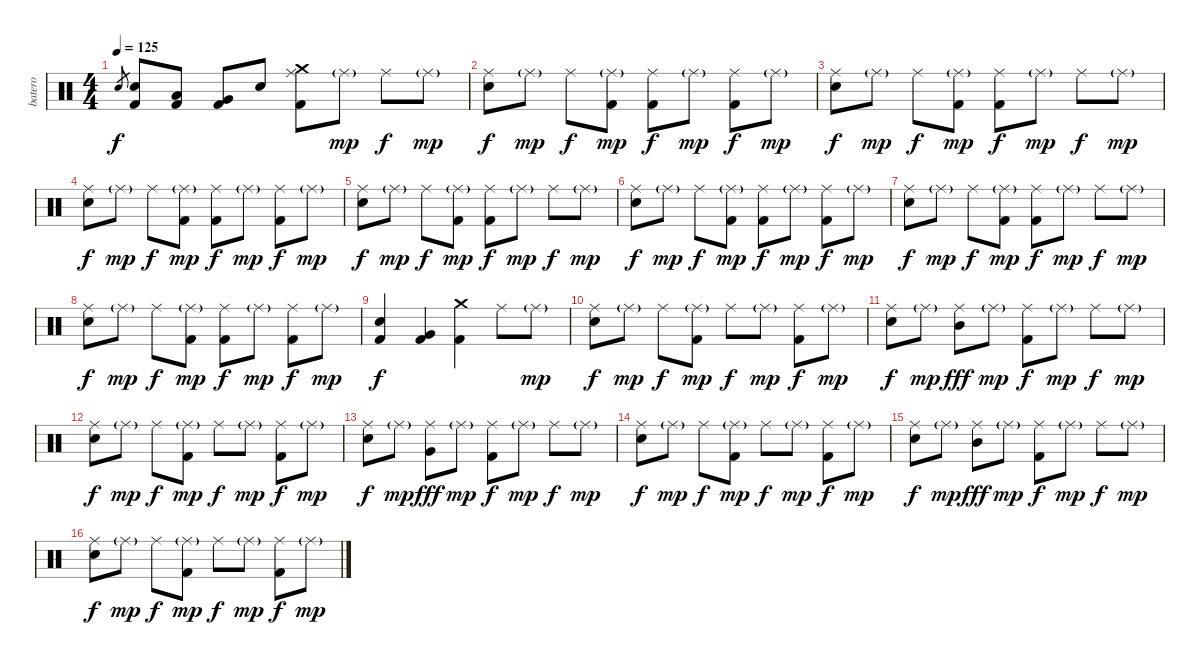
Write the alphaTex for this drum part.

\track ("batero" "batero") {instrument percussion}
\staff {score}
\articulation defaults
\ts (4 4)
\tempo 125
\clef neutral
\ks c "Snare (hit) 2".8{gr dy f}
("Snare (hit) 2" "Kick (hit) 2").8 ("Low Tom (hit)" "Kick (hit) 2").8 ("Very Low Tom (hit)" "Kick (hit) 2").8 "Snare (hit) 2".8 ("Crash medium (hit)" "Ride (middle)" "Kick (hit) 2").8 "Ride (middle)"{g}.8{dy mp} "Ride (middle)".8{dy f} "Ride (middle)"{g}.8{dy mp} |
("Ride (middle)" "Snare (hit) 2").8{dy f} "Ride (middle)"{g}.8{dy mp} "Ride (middle)".8{dy f} ("Ride (middle)"{g} "Kick (hit) 2").8{dy mp} ("Ride (middle)" "Kick (hit) 2").8{dy f} "Ride (middle)"{g}.8{dy mp} ("Ride (middle)" "Kick (hit) 2").8{dy f} "Ride (middle)"{g}.8{dy mp} |
("Ride (middle)" "Snare (hit) 2").8{dy f} "Ride (middle)"{g}.8{dy mp} "Ride (middle)".8{dy f} ("Ride (middle)"{g} "Kick (hit) 2").8{dy mp} ("Ride (middle)" "Kick (hit) 2").8{dy f} "Ride (middle)"{g}.8{dy mp} "Ride (middle)".8{dy f} "Ride (middle)"{g}.8{dy mp} |
("Ride (middle)" "Snare (hit) 2").8{dy f} "Ride (middle)"{g}.8{dy mp} "Ride (middle)".8{dy f} ("Ride (middle)"{g} "Kick (hit) 2").8{dy mp} ("Ride (middle)" "Kick (hit) 2").8{dy f} "Ride (middle)"{g}.8{dy mp} ("Ride (middle)" "Kick (hit) 2").8{dy f} "Ride (middle)"{g}.8{dy mp} |
("Ride (middle)" "Snare (hit) 2").8{dy f} "Ride (middle)"{g}.8{dy mp} "Ride (middle)".8{dy f} ("Ride (middle)"{g} "Kick (hit) 2").8{dy mp} ("Ride (middle)" "Kick (hit) 2").8{dy f} "Ride (middle)"{g}.8{dy mp} "Ride (middle)".8{dy f} "Ride (middle)"{g}.8{dy mp} |
("Ride (middle)" "Snare (hit) 2").8{dy f} "Ride (middle)"{g}.8{dy mp} "Ride (middle)".8{dy f} ("Ride (middle)"{g} "Kick (hit) 2").8{dy mp} ("Ride (middle)" "Kick (hit) 2").8{dy f} "Ride (middle)"{g}.8{dy mp} ("Ride (middle)" "Kick (hit) 2").8{dy f} "Ride (middle)"{g}.8{dy mp} |
("Ride (middle)" "Snare (hit) 2").8{dy f} "Ride (middle)"{g}.8{dy mp} "Ride (middle)".8{dy f} ("Ride (middle)"{g} "Kick (hit) 2").8{dy mp} ("Ride (middle)" "Kick (hit) 2").8{dy f} "Ride (middle)"{g}.8{dy mp} "Ride (middle)".8{dy f} "Ride (middle)"{g}.8{dy mp} |
("Ride (middle)" "Snare (hit) 2").8{dy f} "Ride (middle)"{g}.8{dy mp} "Ride (middle)".8{dy f} ("Ride (middle)"{g} "Kick (hit) 2").8{dy mp} ("Ride (middle)" "Kick (hit) 2").8{dy f} "Ride (middle)"{g}.8{dy mp} ("Ride (middle)" "Kick (hit) 2").8{dy f} "Ride (middle)"{g}.8{dy mp} |
("Snare (hit) 2" "Kick (hit) 2").4{dy f} ("Very Low Tom (hit)" "Kick (hit) 2").4 ("Crash medium (hit)" "Kick (hit) 2").4 "Ride (middle)".8 "Ride (middle)"{g}.8{dy mp} |
("Ride (middle)" "Snare (hit) 2").8{dy f} "Ride (middle)"{g}.8{dy mp} "Ride (middle)".8{dy f} ("Ride (middle)"{g} "Kick (hit) 2").8{dy mp} "Ride (middle)".8{dy f} "Ride (middle)"{g}.8{dy mp} ("Ride (middle)" "Kick (hit) 2").8{dy f} "Ride (middle)"{g}.8{dy mp} |
("Ride (middle)" "Snare (hit) 2").8{dy f} "Ride (middle)"{g}.8{dy mp} ("Ride (middle)" "Mid Tom (hit)").8{dy fff} "Ride (middle)"{g}.8{dy mp} ("Ride (middle)" "Kick (hit) 2").8{dy f} "Ride (middle)"{g}.8{dy mp} "Ride (middle)".8{dy f} "Ride (middle)"{g}.8{dy mp} |
("Ride (middle)" "Snare (hit) 2").8{dy f} "Ride (middle)"{g}.8{dy mp} "Ride (middle)".8{dy f} ("Ride (middle)"{g} "Kick (hit) 2").8{dy mp} "Ride (middle)".8{dy f} "Ride (middle)"{g}.8{dy mp} ("Ride (middle)" "Kick (hit) 2").8{dy f} "Ride (middle)"{g}.8{dy mp} |
("Ride (middle)" "Snare (hit) 2").8{dy f} "Ride (middle)"{g}.8{dy mp} ("Ride (middle)" "Very Low Tom (hit)").8{dy fff} "Ride (middle)"{g}.8{dy mp} ("Ride (middle)" "Kick (hit) 2").8{dy f} "Ride (middle)"{g}.8{dy mp} "Ride (middle)".8{dy f} "Ride (middle)"{g}.8{dy mp} |
("Ride (middle)" "Snare (hit) 2").8{dy f} "Ride (middle)"{g}.8{dy mp} "Ride (middle)".8{dy f} ("Ride (middle)"{g} "Kick (hit) 2").8{dy mp} "Ride (middle)".8{dy f} "Ride (middle)"{g}.8{dy mp} ("Ride (middle)" "Kick (hit) 2").8{dy f} "Ride (middle)"{g}.8{dy mp} |
("Ride (middle)" "Snare (hit) 2").8{dy f} "Ride (middle)"{g}.8{dy mp} ("Ride (middle)" "Mid Tom (hit)").8{dy fff} "Ride (middle)"{g}.8{dy mp} ("Ride (middle)" "Kick (hit) 2").8{dy f} "Ride (middle)"{g}.8{dy mp} "Ride (middle)".8{dy f} "Ride (middle)"{g}.8{dy mp} |
("Ride (middle)" "Snare (hit) 2").8{dy f} "Ride (middle)"{g}.8{dy mp} "Ride (middle)".8{dy f} ("Ride (middle)"{g} "Kick (hit) 2").8{dy mp} "Ride (middle)".8{dy f} "Ride (middle)"{g}.8{dy mp} ("Ride (middle)" "Kick (hit) 2").8{dy f} "Ride (middle)"{g}.8{dy mp}
